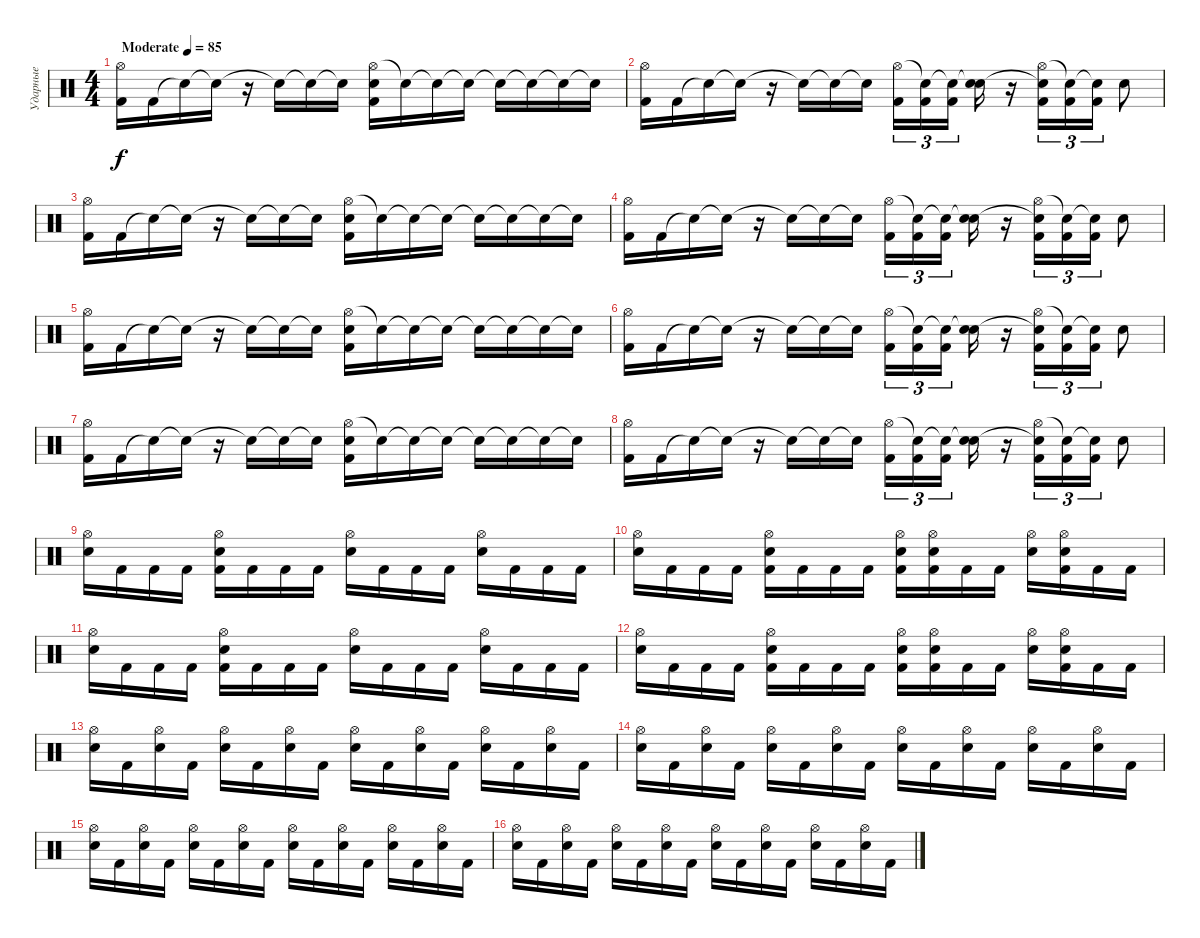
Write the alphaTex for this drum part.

\track ("Ударные" "Ударные") {instrument percussion}
\staff {score}
\articulation defaults
\ts (4 4)
\tempo (85 "Moderate")
\clef neutral
\ks c
("Hi-Hat (open)" "Kick (hit) 2").16{dy f} "Kick (hit) 2".16 "Snare (hit)"{t}.16 "Snare (hit)"{t}.16 r.16 "Snare (hit)"{t}.16 "Snare (hit)"{t}.16 "Snare (hit)"{t}.16 ("Hi-Hat (open)" "Electric Snare (hit)" "Kick (hit) 2").16 "Snare (hit)"{t}.16 "Snare (hit)"{t}.16 "Snare (hit)"{t}.16 "Snare (hit)"{t}.16 "Snare (hit)"{t}.16 "Snare (hit)"{t}.16 "Snare (hit)"{t}.16 |
("Hi-Hat (open)" "Kick (hit) 2").16 "Kick (hit) 2".16 "Snare (hit)"{t}.16 "Snare (hit)"{t}.16 r.16 "Snare (hit)"{t}.16 "Snare (hit)"{t}.16 "Snare (hit)"{t}.16 ("Hi-Hat (open)" "Kick (hit) 2").16{tu (3 2)} ("Snare (hit)"{t} "Kick (hit) 2").16{tu (3 2)} ("Snare (hit)"{t} "Kick (hit) 2").16{tu (3 2) beam splitsecondary} ("Snare (hit)"{t} "Electric Snare (hit)").16 r.16 ("Hi-Hat (open)" "Snare (hit)"{t} "Kick (hit) 2").16{tu (3 2)} ("Snare (hit)"{t} "Kick (hit) 2").16{tu (3 2)} ("Snare (hit)"{t} "Kick (hit) 2").16{tu (3 2)} "Electric Snare (hit)".8 |
("Hi-Hat (open)" "Kick (hit) 2").16 "Kick (hit) 2".16 "Snare (hit)"{t}.16 "Snare (hit)"{t}.16 r.16 "Snare (hit)"{t}.16 "Snare (hit)"{t}.16 "Snare (hit)"{t}.16 ("Hi-Hat (open)" "Electric Snare (hit)" "Kick (hit) 2").16 "Snare (hit)"{t}.16 "Snare (hit)"{t}.16 "Snare (hit)"{t}.16 "Snare (hit)"{t}.16 "Snare (hit)"{t}.16 "Snare (hit)"{t}.16 "Snare (hit)"{t}.16 |
("Hi-Hat (open)" "Kick (hit) 2").16 "Kick (hit) 2".16 "Snare (hit)"{t}.16 "Snare (hit)"{t}.16 r.16 "Snare (hit)"{t}.16 "Snare (hit)"{t}.16 "Snare (hit)"{t}.16 ("Hi-Hat (open)" "Kick (hit) 2").16{tu (3 2)} ("Snare (hit)"{t} "Kick (hit) 2").16{tu (3 2)} ("Snare (hit)"{t} "Kick (hit) 2").16{tu (3 2) beam splitsecondary} ("Snare (hit)"{t} "Electric Snare (hit)").16 r.16 ("Hi-Hat (open)" "Snare (hit)"{t} "Kick (hit) 2").16{tu (3 2)} ("Snare (hit)"{t} "Kick (hit) 2").16{tu (3 2)} ("Snare (hit)"{t} "Kick (hit) 2").16{tu (3 2)} "Electric Snare (hit)".8 |
("Hi-Hat (open)" "Kick (hit) 2").16 "Kick (hit) 2".16 "Snare (hit)"{t}.16 "Snare (hit)"{t}.16 r.16 "Snare (hit)"{t}.16 "Snare (hit)"{t}.16 "Snare (hit)"{t}.16 ("Hi-Hat (open)" "Electric Snare (hit)" "Kick (hit) 2").16 "Snare (hit)"{t}.16 "Snare (hit)"{t}.16 "Snare (hit)"{t}.16 "Snare (hit)"{t}.16 "Snare (hit)"{t}.16 "Snare (hit)"{t}.16 "Snare (hit)"{t}.16 |
("Hi-Hat (open)" "Kick (hit) 2").16 "Kick (hit) 2".16 "Snare (hit)"{t}.16 "Snare (hit)"{t}.16 r.16 "Snare (hit)"{t}.16 "Snare (hit)"{t}.16 "Snare (hit)"{t}.16 ("Hi-Hat (open)" "Kick (hit) 2").16{tu (3 2)} ("Snare (hit)"{t} "Kick (hit) 2").16{tu (3 2)} ("Snare (hit)"{t} "Kick (hit) 2").16{tu (3 2) beam splitsecondary} ("Snare (hit)"{t} "Electric Snare (hit)").16 r.16 ("Hi-Hat (open)" "Snare (hit)"{t} "Kick (hit) 2").16{tu (3 2)} ("Snare (hit)"{t} "Kick (hit) 2").16{tu (3 2)} ("Snare (hit)"{t} "Kick (hit) 2").16{tu (3 2)} "Electric Snare (hit)".8 |
("Hi-Hat (open)" "Kick (hit) 2").16 "Kick (hit) 2".16 "Snare (hit)"{t}.16 "Snare (hit)"{t}.16 r.16 "Snare (hit)"{t}.16 "Snare (hit)"{t}.16 "Snare (hit)"{t}.16 ("Hi-Hat (open)" "Electric Snare (hit)" "Kick (hit) 2").16 "Snare (hit)"{t}.16 "Snare (hit)"{t}.16 "Snare (hit)"{t}.16 "Snare (hit)"{t}.16 "Snare (hit)"{t}.16 "Snare (hit)"{t}.16 "Snare (hit)"{t}.16 |
("Hi-Hat (open)" "Kick (hit) 2").16 "Kick (hit) 2".16 "Snare (hit)"{t}.16 "Snare (hit)"{t}.16 r.16 "Snare (hit)"{t}.16 "Snare (hit)"{t}.16 "Snare (hit)"{t}.16 ("Hi-Hat (open)" "Kick (hit) 2").16{tu (3 2)} ("Snare (hit)"{t} "Kick (hit) 2").16{tu (3 2)} ("Snare (hit)"{t} "Kick (hit) 2").16{tu (3 2) beam splitsecondary} ("Snare (hit)"{t} "Electric Snare (hit)").16 r.16 ("Hi-Hat (open)" "Snare (hit)"{t} "Kick (hit) 2").16{tu (3 2)} ("Snare (hit)"{t} "Kick (hit) 2").16{tu (3 2)} ("Snare (hit)"{t} "Kick (hit) 2").16{tu (3 2)} "Electric Snare (hit)".8 |
("Hi-Hat (open)" "Electric Snare (hit)").16 "Kick (hit) 2".16 "Kick (hit) 2".16 "Kick (hit) 2".16 ("Hi-Hat (open)" "Electric Snare (hit)" "Kick (hit) 2").16 "Kick (hit) 2".16 "Kick (hit) 2".16 "Kick (hit) 2".16 ("Hi-Hat (open)" "Electric Snare (hit)").16 "Kick (hit) 2".16 "Kick (hit) 2".16 "Kick (hit) 2".16 ("Hi-Hat (open)" "Electric Snare (hit)").16 "Kick (hit) 2".16 "Kick (hit) 2".16 "Kick (hit) 2".16 |
("Hi-Hat (open)" "Electric Snare (hit)").16 "Kick (hit) 2".16 "Kick (hit) 2".16 "Kick (hit) 2".16 ("Hi-Hat (open)" "Electric Snare (hit)" "Kick (hit) 2").16 "Kick (hit) 2".16 "Kick (hit) 2".16 "Kick (hit) 2".16 ("Hi-Hat (open)" "Electric Snare (hit)" "Kick (hit) 2").16 ("Hi-Hat (open)" "Electric Snare (hit)" "Kick (hit) 2").16 "Kick (hit) 2".16 "Kick (hit) 2".16 ("Hi-Hat (open)" "Electric Snare (hit)").16 ("Hi-Hat (open)" "Electric Snare (hit)" "Kick (hit) 2").16 "Kick (hit) 2".16 "Kick (hit) 2".16 |
("Hi-Hat (open)" "Electric Snare (hit)").16 "Kick (hit) 2".16 "Kick (hit) 2".16 "Kick (hit) 2".16 ("Hi-Hat (open)" "Electric Snare (hit)" "Kick (hit) 2").16 "Kick (hit) 2".16 "Kick (hit) 2".16 "Kick (hit) 2".16 ("Hi-Hat (open)" "Electric Snare (hit)").16 "Kick (hit) 2".16 "Kick (hit) 2".16 "Kick (hit) 2".16 ("Hi-Hat (open)" "Electric Snare (hit)").16 "Kick (hit) 2".16 "Kick (hit) 2".16 "Kick (hit) 2".16 |
("Hi-Hat (open)" "Electric Snare (hit)").16 "Kick (hit) 2".16 "Kick (hit) 2".16 "Kick (hit) 2".16 ("Hi-Hat (open)" "Electric Snare (hit)" "Kick (hit) 2").16 "Kick (hit) 2".16 "Kick (hit) 2".16 "Kick (hit) 2".16 ("Hi-Hat (open)" "Electric Snare (hit)" "Kick (hit) 2").16 ("Hi-Hat (open)" "Electric Snare (hit)" "Kick (hit) 2").16 "Kick (hit) 2".16 "Kick (hit) 2".16 ("Hi-Hat (open)" "Electric Snare (hit)").16 ("Hi-Hat (open)" "Electric Snare (hit)" "Kick (hit) 2").16 "Kick (hit) 2".16 "Kick (hit) 2".16 |
("Hi-Hat (open)" "Electric Snare (hit)").16 "Kick (hit) 2".16 ("Hi-Hat (open)" "Electric Snare (hit)").16 "Kick (hit) 2".16 ("Hi-Hat (open)" "Electric Snare (hit)").16 "Kick (hit) 2".16 ("Hi-Hat (open)" "Electric Snare (hit)").16 "Kick (hit) 2".16 ("Hi-Hat (open)" "Electric Snare (hit)").16 "Kick (hit) 2".16 ("Hi-Hat (open)" "Electric Snare (hit)").16 "Kick (hit) 2".16 ("Hi-Hat (open)" "Electric Snare (hit)").16 "Kick (hit) 2".16 ("Hi-Hat (open)" "Electric Snare (hit)").16 "Kick (hit) 2".16 |
("Hi-Hat (open)" "Electric Snare (hit)").16 "Kick (hit) 2".16 ("Hi-Hat (open)" "Electric Snare (hit)").16 "Kick (hit) 2".16 ("Hi-Hat (open)" "Electric Snare (hit)").16 "Kick (hit) 2".16 ("Hi-Hat (open)" "Electric Snare (hit)").16 "Kick (hit) 2".16 ("Hi-Hat (open)" "Electric Snare (hit)").16 "Kick (hit) 2".16 ("Hi-Hat (open)" "Electric Snare (hit)").16 "Kick (hit) 2".16 ("Hi-Hat (open)" "Electric Snare (hit)").16 "Kick (hit) 2".16 ("Hi-Hat (open)" "Electric Snare (hit)").16 "Kick (hit) 2".16 |
("Hi-Hat (open)" "Electric Snare (hit)").16 "Kick (hit) 2".16 ("Hi-Hat (open)" "Electric Snare (hit)").16 "Kick (hit) 2".16 ("Hi-Hat (open)" "Electric Snare (hit)").16 "Kick (hit) 2".16 ("Hi-Hat (open)" "Electric Snare (hit)").16 "Kick (hit) 2".16 ("Hi-Hat (open)" "Electric Snare (hit)").16 "Kick (hit) 2".16 ("Hi-Hat (open)" "Electric Snare (hit)").16 "Kick (hit) 2".16 ("Hi-Hat (open)" "Electric Snare (hit)").16 "Kick (hit) 2".16 ("Hi-Hat (open)" "Electric Snare (hit)").16 "Kick (hit) 2".16 |
("Hi-Hat (open)" "Electric Snare (hit)").16 "Kick (hit) 2".16 ("Hi-Hat (open)" "Electric Snare (hit)").16 "Kick (hit) 2".16 ("Hi-Hat (open)" "Electric Snare (hit)").16 "Kick (hit) 2".16 ("Hi-Hat (open)" "Electric Snare (hit)").16 "Kick (hit) 2".16 ("Hi-Hat (open)" "Electric Snare (hit)").16 "Kick (hit) 2".16 ("Hi-Hat (open)" "Electric Snare (hit)").16 "Kick (hit) 2".16 ("Hi-Hat (open)" "Electric Snare (hit)").16 "Kick (hit) 2".16 ("Hi-Hat (open)" "Electric Snare (hit)").16 "Kick (hit) 2".16
